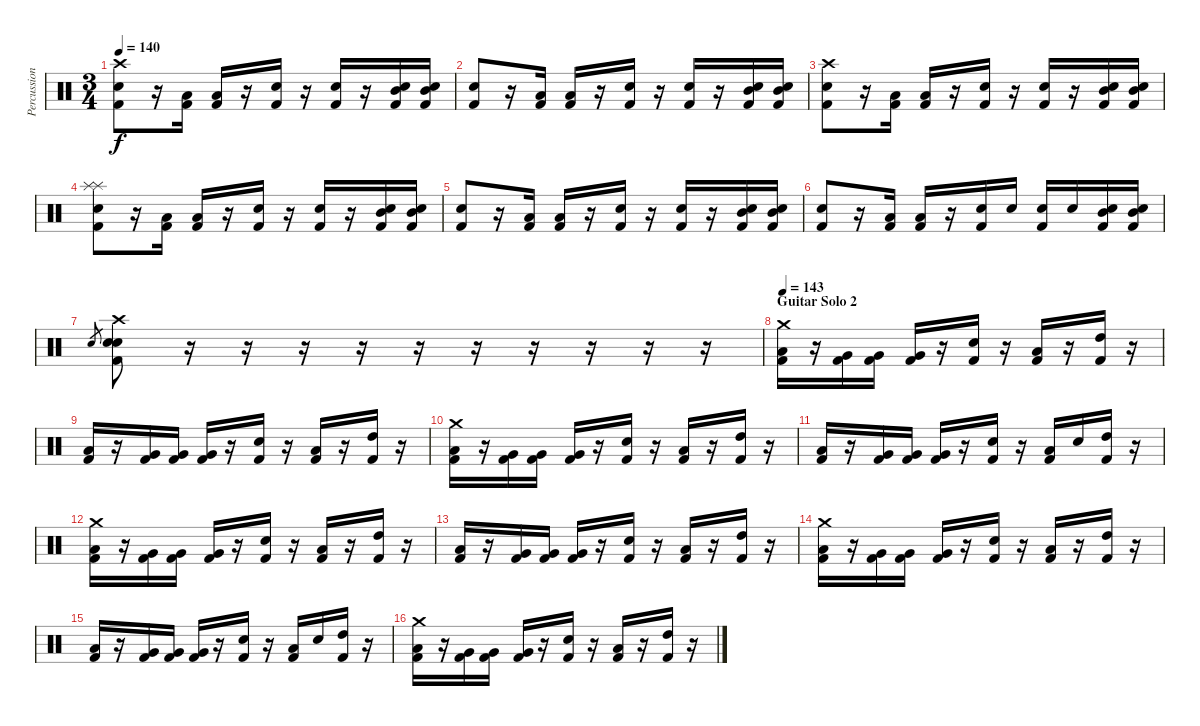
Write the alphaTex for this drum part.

\track ("Percussion" "Percussion") {instrument percussion}
\staff {score}
\articulation defaults
\ts (3 4)
\tempo 140
\clef neutral
\ks c
("Crash high (hit)" "Snare (hit) 2" "Kick (hit) 2").8{dy f} r.16 ("Low Tom (hit)" "Kick (hit) 2").16 ("Low Tom (hit)" "Kick (hit) 2").16 r.16 ("Electric Snare (hit)" "Kick (hit) 2").16 r.16 ("Electric Snare (hit)" "Kick (hit) 2").16 r.16 ("Snare (hit) 2" "Mid Tom (hit)" "Kick (hit) 2").16 ("Snare (hit) 2" "Mid Tom (hit)" "Kick (hit) 2").16 |
("Snare (hit) 2" "Kick (hit) 2").8 r.16 ("Low Tom (hit)" "Kick (hit) 2").16 ("Low Tom (hit)" "Kick (hit) 2").16 r.16 ("Electric Snare (hit)" "Kick (hit) 2").16 r.16 ("Electric Snare (hit)" "Kick (hit) 2").16 r.16 ("Snare (hit) 2" "Mid Tom (hit)" "Kick (hit) 2").16 ("Snare (hit) 2" "Mid Tom (hit)" "Kick (hit) 2").16 |
("Crash high (hit)" "Snare (hit) 2" "Kick (hit) 2").8 r.16 ("Low Tom (hit)" "Kick (hit) 2").16 ("Low Tom (hit)" "Kick (hit) 2").16 r.16 ("Electric Snare (hit)" "Kick (hit) 2").16 r.16 ("Electric Snare (hit)" "Kick (hit) 2").16 r.16 ("Snare (hit) 2" "Mid Tom (hit)" "Kick (hit) 2").16 ("Snare (hit) 2" "Mid Tom (hit)" "Kick (hit) 2").16 |
("Splash (hit)" "Splash (hit)" "Snare (hit) 2" "Kick (hit) 2").8 r.16 ("Low Tom (hit)" "Kick (hit) 2").16 ("Low Tom (hit)" "Kick (hit) 2").16 r.16 ("Electric Snare (hit)" "Kick (hit) 2").16 r.16 ("Electric Snare (hit)" "Kick (hit) 2").16 r.16 ("Snare (hit) 2" "Mid Tom (hit)" "Kick (hit) 2").16 ("Snare (hit) 2" "Mid Tom (hit)" "Kick (hit) 2").16 |
("Snare (hit) 2" "Kick (hit) 2").8 r.16 ("Low Tom (hit)" "Kick (hit) 2").16 ("Low Tom (hit)" "Kick (hit) 2").16 r.16 ("Electric Snare (hit)" "Kick (hit) 2").16 r.16 ("Electric Snare (hit)" "Kick (hit) 2").16 r.16 ("Snare (hit) 2" "Mid Tom (hit)" "Kick (hit) 2").16 ("Snare (hit) 2" "Mid Tom (hit)" "Kick (hit) 2").16 |
("Snare (hit) 2" "Kick (hit) 2").8 r.16 ("Low Tom (hit)" "Kick (hit) 2").16 ("Low Tom (hit)" "Kick (hit) 2").16 r.16 ("Electric Snare (hit)" "Kick (hit) 2").16 "Electric Snare (hit)".16 ("Electric Snare (hit)" "Kick (hit) 2").16 "Electric Snare (hit)".16 ("Snare (hit) 2" "Mid Tom (hit)" "Kick (hit) 2").16 ("Snare (hit) 2" "Mid Tom (hit)" "Kick (hit) 2").16 |
"Electric Snare (hit)".8{gr} ("Crash high (hit)" "Snare (hit) 2" "Electric Snare (hit)" "Kick (hit) 2").8 r.16 r.16 r.16 r.16 r.16 r.16 r.16 r.16 r.16 r.16 |
\section ("" "Guitar Solo 2")
\tempo 143
("Crash medium (hit)" "Low Tom (hit)" "Kick (hit) 2").16 r.16 ("Very Low Tom (hit)" "Kick (hit) 2").16 ("Very Low Tom (hit)" "Kick (hit) 2").16 ("Very Low Tom (hit)" "Kick (hit) 2").16 r.16 ("Snare (hit) 2" "Kick (hit) 2").16 r.16 ("Low Tom (hit)" "Kick (hit) 2").16 r.16 ("High Tom (hit)" "Kick (hit) 2").16 r.16 |
("Low Tom (hit)" "Kick (hit) 2").16 r.16 ("Very Low Tom (hit)" "Kick (hit) 2").16 ("Very Low Tom (hit)" "Kick (hit) 2").16 ("Very Low Tom (hit)" "Kick (hit) 2").16 r.16 ("Snare (hit) 2" "Kick (hit) 2").16 r.16 ("Low Tom (hit)" "Kick (hit) 2").16 r.16 ("High Tom (hit)" "Kick (hit) 2").16 r.16 |
("Crash medium (hit)" "Low Tom (hit)" "Kick (hit) 2").16 r.16 ("Very Low Tom (hit)" "Kick (hit) 2").16 ("Very Low Tom (hit)" "Kick (hit) 2").16 ("Very Low Tom (hit)" "Kick (hit) 2").16 r.16 ("Snare (hit) 2" "Kick (hit) 2").16 r.16 ("Low Tom (hit)" "Kick (hit) 2").16 r.16 ("High Tom (hit)" "Kick (hit) 2").16 r.16 |
("Low Tom (hit)" "Kick (hit) 2").16 r.16 ("Very Low Tom (hit)" "Kick (hit) 2").16 ("Very Low Tom (hit)" "Kick (hit) 2").16 ("Very Low Tom (hit)" "Kick (hit) 2").16 r.16 ("Snare (hit) 2" "Kick (hit) 2").16 r.16 ("Low Tom (hit)" "Kick (hit) 2").16 "Electric Snare (hit)".16 ("High Tom (hit)" "Kick (hit) 2").16 r.16 |
("Crash medium (hit)" "Low Tom (hit)" "Kick (hit) 2").16 r.16 ("Very Low Tom (hit)" "Kick (hit) 2").16 ("Very Low Tom (hit)" "Kick (hit) 2").16 ("Very Low Tom (hit)" "Kick (hit) 2").16 r.16 ("Snare (hit) 2" "Kick (hit) 2").16 r.16 ("Low Tom (hit)" "Kick (hit) 2").16 r.16 ("High Tom (hit)" "Kick (hit) 2").16 r.16 |
("Low Tom (hit)" "Kick (hit) 2").16 r.16 ("Very Low Tom (hit)" "Kick (hit) 2").16 ("Very Low Tom (hit)" "Kick (hit) 2").16 ("Very Low Tom (hit)" "Kick (hit) 2").16 r.16 ("Snare (hit) 2" "Kick (hit) 2").16 r.16 ("Low Tom (hit)" "Kick (hit) 2").16 r.16 ("High Tom (hit)" "Kick (hit) 2").16 r.16 |
("Crash medium (hit)" "Low Tom (hit)" "Kick (hit) 2").16 r.16 ("Very Low Tom (hit)" "Kick (hit) 2").16 ("Very Low Tom (hit)" "Kick (hit) 2").16 ("Very Low Tom (hit)" "Kick (hit) 2").16 r.16 ("Snare (hit) 2" "Kick (hit) 2").16 r.16 ("Low Tom (hit)" "Kick (hit) 2").16 r.16 ("High Tom (hit)" "Kick (hit) 2").16 r.16 |
("Low Tom (hit)" "Kick (hit) 2").16 r.16 ("Very Low Tom (hit)" "Kick (hit) 2").16 ("Very Low Tom (hit)" "Kick (hit) 2").16 ("Very Low Tom (hit)" "Kick (hit) 2").16 r.16 ("Snare (hit) 2" "Kick (hit) 2").16 r.16 ("Low Tom (hit)" "Kick (hit) 2").16 "Electric Snare (hit)".16 ("High Tom (hit)" "Kick (hit) 2").16 r.16 |
("Crash medium (hit)" "Low Tom (hit)" "Kick (hit) 2").16 r.16 ("Very Low Tom (hit)" "Kick (hit) 2").16 ("Very Low Tom (hit)" "Kick (hit) 2").16 ("Very Low Tom (hit)" "Kick (hit) 2").16 r.16 ("Snare (hit) 2" "Kick (hit) 2").16 r.16 ("Low Tom (hit)" "Kick (hit) 2").16 r.16 ("High Tom (hit)" "Kick (hit) 2").16 r.16
